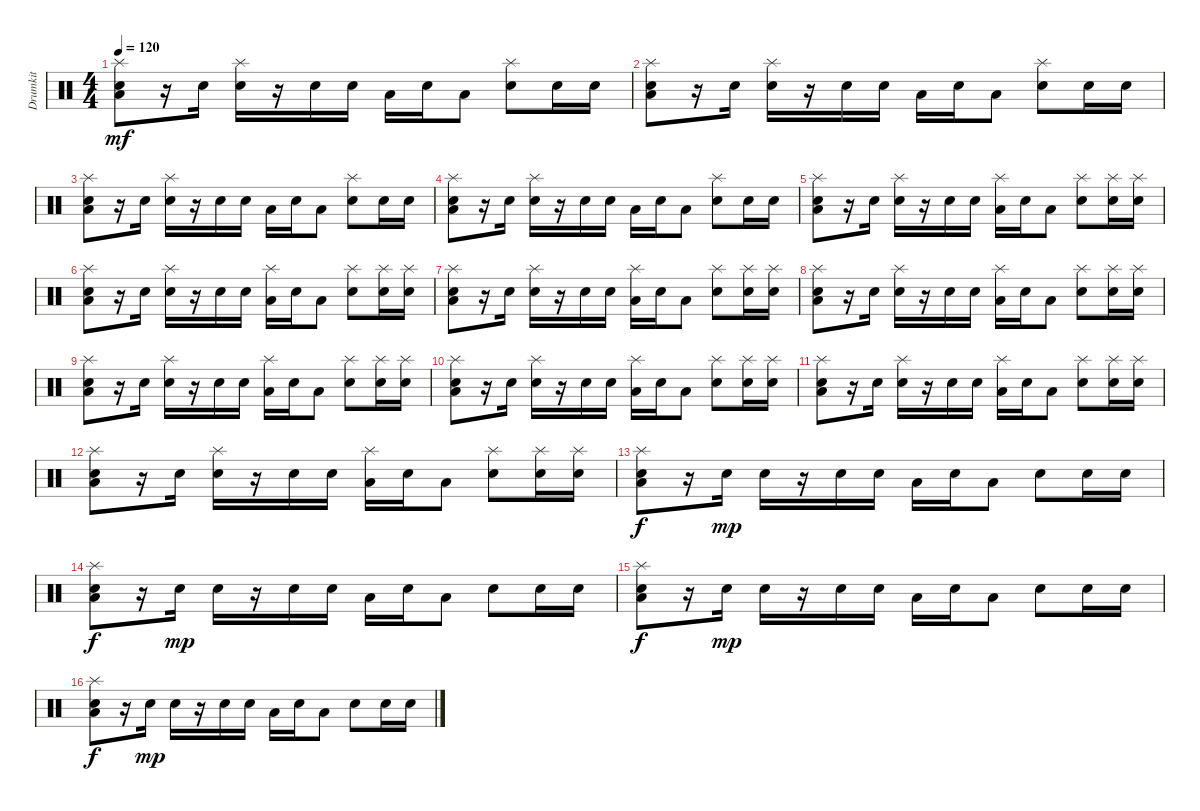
\track ("Drumkit" "Drumkit") {instrument percussion}
\staff {score}
\articulation defaults
\ts (4 4)
\tempo 120
\clef neutral
\ks c
("Low Floor Tom (hit)" "Snare (hit) 2" "Splash (hit)").8{dy mf} r.16 "Snare (hit) 2".16 ("Snare (hit) 2" "Splash (hit)").16 r.16 "Snare (hit) 2".16 "Snare (hit) 2".16 "Low Floor Tom (hit)".16 "Snare (hit) 2".16 "Low Floor Tom (hit)".8 ("Snare (hit) 2" "Splash (hit)").8 "Snare (hit) 2".16 "Snare (hit) 2".16 |
("Low Floor Tom (hit)" "Snare (hit) 2" "Splash (hit)").8 r.16 "Snare (hit) 2".16 ("Snare (hit) 2" "Splash (hit)").16 r.16 "Snare (hit) 2".16 "Snare (hit) 2".16 "Low Floor Tom (hit)".16 "Snare (hit) 2".16 "Low Floor Tom (hit)".8 ("Snare (hit) 2" "Splash (hit)").8 "Snare (hit) 2".16 "Snare (hit) 2".16 |
("Low Floor Tom (hit)" "Snare (hit) 2" "Splash (hit)").8 r.16 "Snare (hit) 2".16 ("Snare (hit) 2" "Splash (hit)").16 r.16 "Snare (hit) 2".16 "Snare (hit) 2".16 "Low Floor Tom (hit)".16 "Snare (hit) 2".16 "Low Floor Tom (hit)".8 ("Snare (hit) 2" "Splash (hit)").8 "Snare (hit) 2".16 "Snare (hit) 2".16 |
("Low Floor Tom (hit)" "Snare (hit) 2" "Splash (hit)").8 r.16 "Snare (hit) 2".16 ("Snare (hit) 2" "Splash (hit)").16 r.16 "Snare (hit) 2".16 "Snare (hit) 2".16 "Low Floor Tom (hit)".16 "Snare (hit) 2".16 "Low Floor Tom (hit)".8 ("Snare (hit) 2" "Splash (hit)").8 "Snare (hit) 2".16 "Snare (hit) 2".16 |
("Low Floor Tom (hit)" "Snare (hit) 2" "Splash (hit)").8 r.16 "Snare (hit) 2".16 ("Snare (hit) 2" "Splash (hit)").16 r.16 "Snare (hit) 2".16 "Snare (hit) 2".16 ("Low Floor Tom (hit)" "Splash (hit)").16 "Snare (hit) 2".16 "Low Floor Tom (hit)".8 ("Snare (hit) 2" "Splash (hit)").8 ("Snare (hit) 2" "Splash (hit)").16 ("Snare (hit) 2" "Splash (hit)").16 |
("Low Floor Tom (hit)" "Snare (hit) 2" "Splash (hit)").8 r.16 "Snare (hit) 2".16 ("Snare (hit) 2" "Splash (hit)").16 r.16 "Snare (hit) 2".16 "Snare (hit) 2".16 ("Low Floor Tom (hit)" "Splash (hit)").16 "Snare (hit) 2".16 "Low Floor Tom (hit)".8 ("Snare (hit) 2" "Splash (hit)").8 ("Snare (hit) 2" "Splash (hit)").16 ("Snare (hit) 2" "Splash (hit)").16 |
("Low Floor Tom (hit)" "Snare (hit) 2" "Splash (hit)").8 r.16 "Snare (hit) 2".16 ("Snare (hit) 2" "Splash (hit)").16 r.16 "Snare (hit) 2".16 "Snare (hit) 2".16 ("Low Floor Tom (hit)" "Splash (hit)").16 "Snare (hit) 2".16 "Low Floor Tom (hit)".8 ("Snare (hit) 2" "Splash (hit)").8 ("Snare (hit) 2" "Splash (hit)").16 ("Snare (hit) 2" "Splash (hit)").16 |
("Low Floor Tom (hit)" "Snare (hit) 2" "Splash (hit)").8 r.16 "Snare (hit) 2".16 ("Snare (hit) 2" "Splash (hit)").16 r.16 "Snare (hit) 2".16 "Snare (hit) 2".16 ("Low Floor Tom (hit)" "Splash (hit)").16 "Snare (hit) 2".16 "Low Floor Tom (hit)".8 ("Snare (hit) 2" "Splash (hit)").8 ("Snare (hit) 2" "Splash (hit)").16 ("Snare (hit) 2" "Splash (hit)").16 |
("Low Floor Tom (hit)" "Snare (hit) 2" "Splash (hit)").8 r.16 "Snare (hit) 2".16 ("Snare (hit) 2" "Splash (hit)").16 r.16 "Snare (hit) 2".16 "Snare (hit) 2".16 ("Low Floor Tom (hit)" "Splash (hit)").16 "Snare (hit) 2".16 "Low Floor Tom (hit)".8 ("Snare (hit) 2" "Splash (hit)").8 ("Snare (hit) 2" "Splash (hit)").16 ("Snare (hit) 2" "Splash (hit)").16 |
("Low Floor Tom (hit)" "Snare (hit) 2" "Splash (hit)").8 r.16 "Snare (hit) 2".16 ("Snare (hit) 2" "Splash (hit)").16 r.16 "Snare (hit) 2".16 "Snare (hit) 2".16 ("Low Floor Tom (hit)" "Splash (hit)").16 "Snare (hit) 2".16 "Low Floor Tom (hit)".8 ("Snare (hit) 2" "Splash (hit)").8 ("Snare (hit) 2" "Splash (hit)").16 ("Snare (hit) 2" "Splash (hit)").16 |
("Low Floor Tom (hit)" "Snare (hit) 2" "Splash (hit)").8 r.16 "Snare (hit) 2".16 ("Snare (hit) 2" "Splash (hit)").16 r.16 "Snare (hit) 2".16 "Snare (hit) 2".16 ("Low Floor Tom (hit)" "Splash (hit)").16 "Snare (hit) 2".16 "Low Floor Tom (hit)".8 ("Snare (hit) 2" "Splash (hit)").8 ("Snare (hit) 2" "Splash (hit)").16 ("Snare (hit) 2" "Splash (hit)").16 |
("Low Floor Tom (hit)" "Snare (hit) 2" "Splash (hit)").8 r.16 "Snare (hit) 2".16 ("Snare (hit) 2" "Splash (hit)").16 r.16 "Snare (hit) 2".16 "Snare (hit) 2".16 ("Low Floor Tom (hit)" "Splash (hit)").16 "Snare (hit) 2".16 "Low Floor Tom (hit)".8 ("Snare (hit) 2" "Splash (hit)").8 ("Snare (hit) 2" "Splash (hit)").16 ("Snare (hit) 2" "Splash (hit)").16 |
("Low Floor Tom (hit)" "Snare (hit) 2" "Splash (hit)").8{dy f} r.16 "Snare (hit) 2".16{dy mp} "Snare (hit) 2".16 r.16 "Snare (hit) 2".16 "Snare (hit) 2".16 "Low Floor Tom (hit)".16 "Snare (hit) 2".16 "Low Floor Tom (hit)".8 "Snare (hit) 2".8 "Snare (hit) 2".16 "Snare (hit) 2".16 |
("Low Floor Tom (hit)" "Snare (hit) 2" "Splash (hit)").8{dy f} r.16 "Snare (hit) 2".16{dy mp} "Snare (hit) 2".16 r.16 "Snare (hit) 2".16 "Snare (hit) 2".16 "Low Floor Tom (hit)".16 "Snare (hit) 2".16 "Low Floor Tom (hit)".8 "Snare (hit) 2".8 "Snare (hit) 2".16 "Snare (hit) 2".16 |
("Low Floor Tom (hit)" "Snare (hit) 2" "Splash (hit)").8{dy f} r.16 "Snare (hit) 2".16{dy mp} "Snare (hit) 2".16 r.16 "Snare (hit) 2".16 "Snare (hit) 2".16 "Low Floor Tom (hit)".16 "Snare (hit) 2".16 "Low Floor Tom (hit)".8 "Snare (hit) 2".8 "Snare (hit) 2".16 "Snare (hit) 2".16 |
("Low Floor Tom (hit)" "Snare (hit) 2" "Splash (hit)").8{dy f} r.16 "Snare (hit) 2".16{dy mp} "Snare (hit) 2".16 r.16 "Snare (hit) 2".16 "Snare (hit) 2".16 "Low Floor Tom (hit)".16 "Snare (hit) 2".16 "Low Floor Tom (hit)".8 "Snare (hit) 2".8 "Snare (hit) 2".16 "Snare (hit) 2".16
